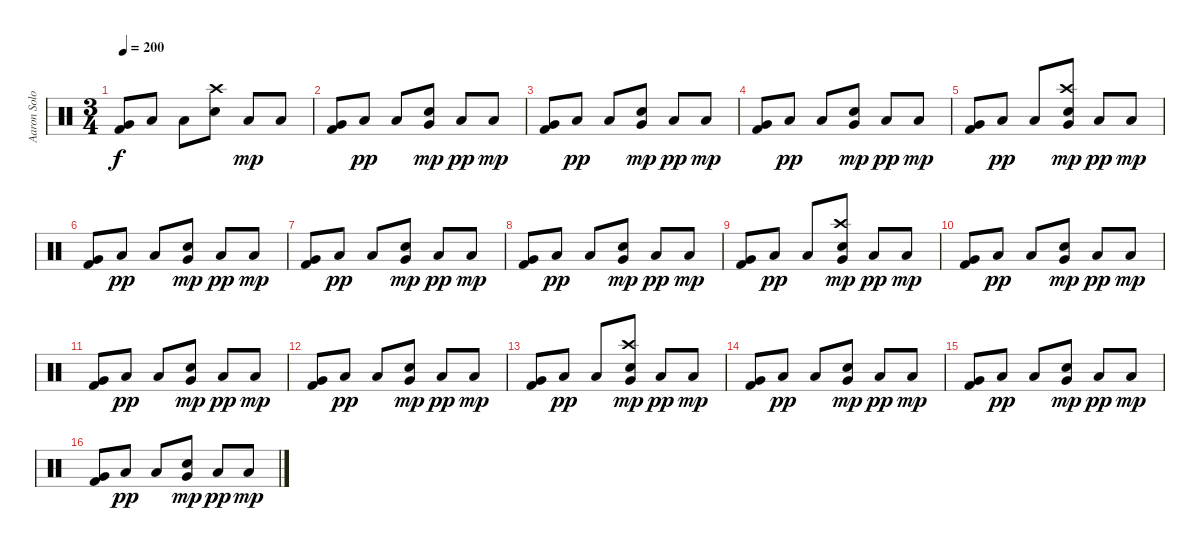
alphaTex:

\track ("Aaron Solowoniuk" "Aaron Solo") {instrument percussion}
\staff {score}
\articulation defaults
\ts (3 4)
\tempo 200
\clef neutral
\ks c
("Very Low Tom (hit)" "Kick (hit) 2").8{dy f} "Low Floor Tom (hit)".8 "Low Floor Tom (hit)".8 ("Crash high (hit)" "Snare (hit) 2").8 "Low Floor Tom (hit)".8{dy mp} "Low Floor Tom (hit)".8 |
("Very Low Tom (hit)" "Kick (hit) 2").8 "Low Floor Tom (hit)".8{dy pp} "Low Floor Tom (hit)".8 ("Very Low Tom (hit)" "Snare (hit) 2").8{dy mp} "Low Floor Tom (hit)".8{dy pp} "Low Floor Tom (hit)".8{dy mp} |
("Very Low Tom (hit)" "Kick (hit) 2").8 "Low Floor Tom (hit)".8{dy pp} "Low Floor Tom (hit)".8 ("Very Low Tom (hit)" "Snare (hit) 2").8{dy mp} "Low Floor Tom (hit)".8{dy pp} "Low Floor Tom (hit)".8{dy mp} |
("Very Low Tom (hit)" "Kick (hit) 2").8 "Low Floor Tom (hit)".8{dy pp} "Low Floor Tom (hit)".8 ("Very Low Tom (hit)" "Snare (hit) 2").8{dy mp} "Low Floor Tom (hit)".8{dy pp} "Low Floor Tom (hit)".8{dy mp} |
("Very Low Tom (hit)" "Kick (hit) 2").8 "Low Floor Tom (hit)".8{dy pp} "Low Floor Tom (hit)".8 ("Crash high (hit)" "Very Low Tom (hit)" "Snare (hit) 2").8{dy mp} "Low Floor Tom (hit)".8{dy pp} "Low Floor Tom (hit)".8{dy mp} |
("Very Low Tom (hit)" "Kick (hit) 2").8 "Low Floor Tom (hit)".8{dy pp} "Low Floor Tom (hit)".8 ("Very Low Tom (hit)" "Snare (hit) 2").8{dy mp} "Low Floor Tom (hit)".8{dy pp} "Low Floor Tom (hit)".8{dy mp} |
("Very Low Tom (hit)" "Kick (hit) 2").8 "Low Floor Tom (hit)".8{dy pp} "Low Floor Tom (hit)".8 ("Very Low Tom (hit)" "Snare (hit) 2").8{dy mp} "Low Floor Tom (hit)".8{dy pp} "Low Floor Tom (hit)".8{dy mp} |
("Very Low Tom (hit)" "Kick (hit) 2").8 "Low Floor Tom (hit)".8{dy pp} "Low Floor Tom (hit)".8 ("Very Low Tom (hit)" "Snare (hit) 2").8{dy mp} "Low Floor Tom (hit)".8{dy pp} "Low Floor Tom (hit)".8{dy mp} |
("Very Low Tom (hit)" "Kick (hit) 2").8 "Low Floor Tom (hit)".8{dy pp} "Low Floor Tom (hit)".8 ("Crash high (hit)" "Very Low Tom (hit)" "Snare (hit) 2").8{dy mp} "Low Floor Tom (hit)".8{dy pp} "Low Floor Tom (hit)".8{dy mp} |
("Very Low Tom (hit)" "Kick (hit) 2").8 "Low Floor Tom (hit)".8{dy pp} "Low Floor Tom (hit)".8 ("Very Low Tom (hit)" "Snare (hit) 2").8{dy mp} "Low Floor Tom (hit)".8{dy pp} "Low Floor Tom (hit)".8{dy mp} |
("Very Low Tom (hit)" "Kick (hit) 2").8 "Low Floor Tom (hit)".8{dy pp} "Low Floor Tom (hit)".8 ("Very Low Tom (hit)" "Snare (hit) 2").8{dy mp} "Low Floor Tom (hit)".8{dy pp} "Low Floor Tom (hit)".8{dy mp} |
("Very Low Tom (hit)" "Kick (hit) 2").8 "Low Floor Tom (hit)".8{dy pp} "Low Floor Tom (hit)".8 ("Very Low Tom (hit)" "Snare (hit) 2").8{dy mp} "Low Floor Tom (hit)".8{dy pp} "Low Floor Tom (hit)".8{dy mp} |
("Very Low Tom (hit)" "Kick (hit) 2").8 "Low Floor Tom (hit)".8{dy pp} "Low Floor Tom (hit)".8 ("Crash high (hit)" "Very Low Tom (hit)" "Snare (hit) 2").8{dy mp} "Low Floor Tom (hit)".8{dy pp} "Low Floor Tom (hit)".8{dy mp} |
("Very Low Tom (hit)" "Kick (hit) 2").8 "Low Floor Tom (hit)".8{dy pp} "Low Floor Tom (hit)".8 ("Very Low Tom (hit)" "Snare (hit) 2").8{dy mp} "Low Floor Tom (hit)".8{dy pp} "Low Floor Tom (hit)".8{dy mp} |
("Very Low Tom (hit)" "Kick (hit) 2").8 "Low Floor Tom (hit)".8{dy pp} "Low Floor Tom (hit)".8 ("Very Low Tom (hit)" "Snare (hit) 2").8{dy mp} "Low Floor Tom (hit)".8{dy pp} "Low Floor Tom (hit)".8{dy mp} |
("Very Low Tom (hit)" "Kick (hit) 2").8 "Low Floor Tom (hit)".8{dy pp} "Low Floor Tom (hit)".8 ("Very Low Tom (hit)" "Snare (hit) 2").8{dy mp} "Low Floor Tom (hit)".8{dy pp} "Low Floor Tom (hit)".8{dy mp}
